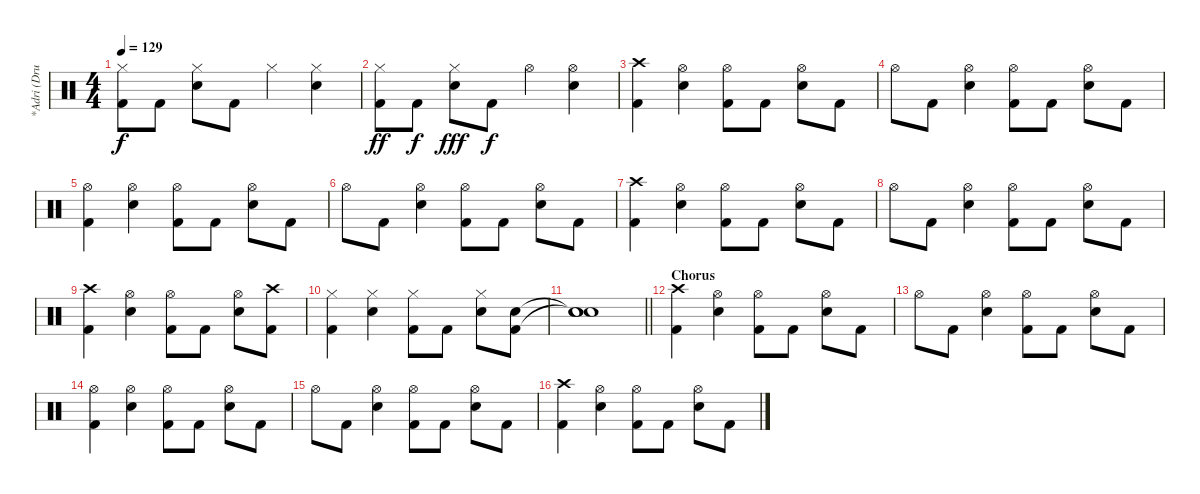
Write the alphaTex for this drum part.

\track ("*Adri (Drum)" "*Adri (Dru") {instrument percussion}
\staff {score}
\articulation defaults
\ts (4 4)
\tempo 129
\clef neutral
\ks c
("Hi-Hat (closed)" "Kick (hit) 2").8{dy f} "Kick (hit) 2".8 ("Hi-Hat (closed)" "Snare (hit) 2").8 "Kick (hit) 2".8 "Hi-Hat (closed)".4 ("Hi-Hat (closed)" "Snare (hit) 2").4 |
("Hi-Hat (closed)" "Kick (hit) 2").8{dy ff} "Kick (hit) 2".8{dy f} ("Hi-Hat (closed)" "Snare (hit) 2").8{dy fff} "Kick (hit) 2".8{dy f} "Hi-Hat (open)".4 ("Hi-Hat (open)" "Snare (hit) 2").4 |
("Crash high (hit)" "Kick (hit) 2").4 ("Hi-Hat (open)" "Snare (hit) 2").4 ("Hi-Hat (open)" "Kick (hit) 2").8 "Kick (hit) 2".8 ("Hi-Hat (open)" "Snare (hit) 2").8 "Kick (hit) 2".8 |
"Hi-Hat (open)".8 "Kick (hit) 2".8 ("Hi-Hat (open)" "Snare (hit) 2").4 ("Hi-Hat (open)" "Kick (hit) 2").8 "Kick (hit) 2".8 ("Hi-Hat (open)" "Snare (hit) 2").8 "Kick (hit) 2".8 |
("Hi-Hat (open)" "Kick (hit) 2").4 ("Hi-Hat (open)" "Snare (hit) 2").4 ("Hi-Hat (open)" "Kick (hit) 2").8 "Kick (hit) 2".8 ("Hi-Hat (open)" "Snare (hit) 2").8 "Kick (hit) 2".8 |
"Hi-Hat (open)".8 "Kick (hit) 2".8 ("Hi-Hat (open)" "Snare (hit) 2").4 ("Hi-Hat (open)" "Kick (hit) 2").8 "Kick (hit) 2".8 ("Hi-Hat (open)" "Snare (hit) 2").8 "Kick (hit) 2".8 |
("Crash high (hit)" "Kick (hit) 2").4 ("Hi-Hat (open)" "Snare (hit) 2").4 ("Hi-Hat (open)" "Kick (hit) 2").8 "Kick (hit) 2".8 ("Hi-Hat (open)" "Snare (hit) 2").8 "Kick (hit) 2".8 |
"Hi-Hat (open)".8 "Kick (hit) 2".8 ("Hi-Hat (open)" "Snare (hit) 2").4 ("Hi-Hat (open)" "Kick (hit) 2").8 "Kick (hit) 2".8 ("Hi-Hat (open)" "Snare (hit) 2").8 "Kick (hit) 2".8 |
("Crash high (hit)" "Kick (hit) 2").4 ("Hi-Hat (open)" "Snare (hit) 2").4 ("Hi-Hat (open)" "Kick (hit) 2").8 "Kick (hit) 2".8 ("Hi-Hat (open)" "Snare (hit) 2").8 ("Crash high (hit)" "Kick (hit) 2").8 |
("Hi-Hat (closed)" "Kick (hit) 2").4 ("Hi-Hat (closed)" "Snare (hit) 2").4 ("Hi-Hat (closed)" "Kick (hit) 2").8 "Kick (hit) 2".8 ("Hi-Hat (closed)" "Snare (hit) 2").8 ("Snare (hit) 2" "Kick (hit) 2").8 |
\barLineRight lightlight
("Snare (hit)"{t} "Snare (hit)"{t} "Snare (hit)").1 |
\section ("" "Chorus")
("Crash high (hit)" "Kick (hit) 2").4 ("Hi-Hat (open)" "Snare (hit) 2").4 ("Hi-Hat (open)" "Kick (hit) 2").8 "Kick (hit) 2".8 ("Hi-Hat (open)" "Snare (hit) 2").8 "Kick (hit) 2".8 |
"Hi-Hat (open)".8 "Kick (hit) 2".8 ("Hi-Hat (open)" "Snare (hit) 2").4 ("Hi-Hat (open)" "Kick (hit) 2").8 "Kick (hit) 2".8 ("Hi-Hat (open)" "Snare (hit) 2").8 "Kick (hit) 2".8 |
("Hi-Hat (open)" "Kick (hit) 2").4 ("Hi-Hat (open)" "Snare (hit) 2").4 ("Hi-Hat (open)" "Kick (hit) 2").8 "Kick (hit) 2".8 ("Hi-Hat (open)" "Snare (hit) 2").8 "Kick (hit) 2".8 |
"Hi-Hat (open)".8 "Kick (hit) 2".8 ("Hi-Hat (open)" "Snare (hit) 2").4 ("Hi-Hat (open)" "Kick (hit) 2").8 "Kick (hit) 2".8 ("Hi-Hat (open)" "Snare (hit) 2").8 "Kick (hit) 2".8 |
("Crash high (hit)" "Kick (hit) 2").4 ("Hi-Hat (open)" "Snare (hit) 2").4 ("Hi-Hat (open)" "Kick (hit) 2").8 "Kick (hit) 2".8 ("Hi-Hat (open)" "Snare (hit) 2").8 "Kick (hit) 2".8
